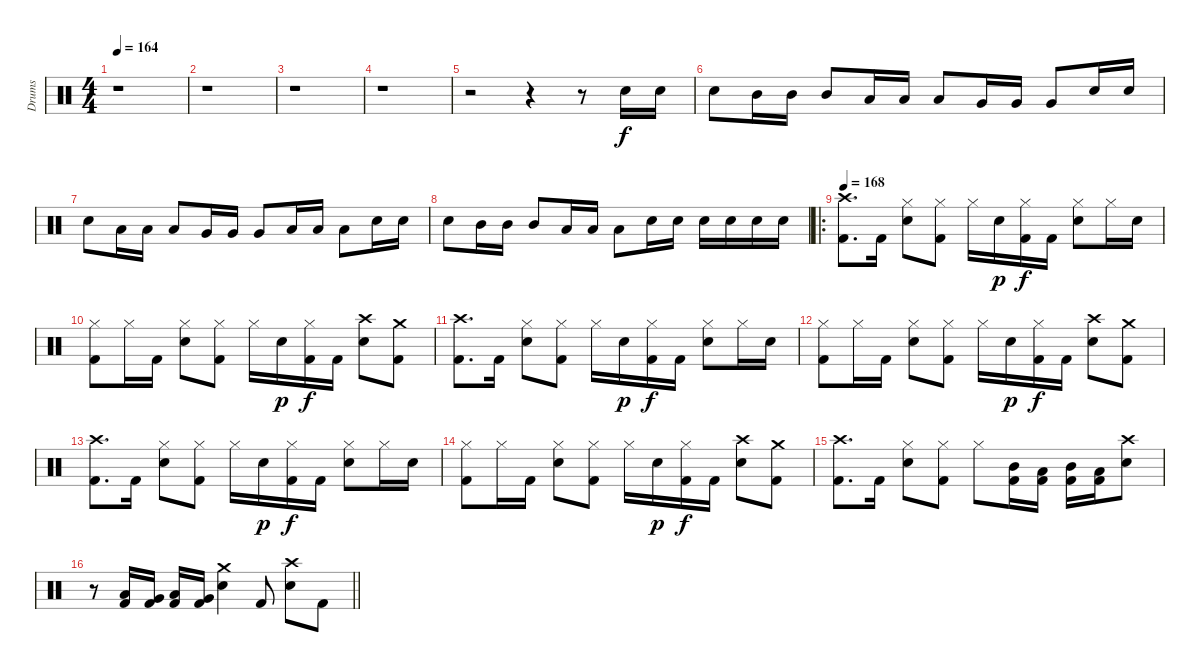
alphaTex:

\track ("Drums" "Drums") {instrument percussion}
\staff {score}
\articulation defaults
\ts (4 4)
\tempo 164
\clef neutral
\ks c
r.1{dy f} |
r.1 |
r.1 |
r.1 |
r.2 r.4 r.8 "Snare (hit) 2".16 "Snare (hit) 2".16 |
"Snare (hit) 2".8 "Mid Tom (hit)".16 "Mid Tom (hit)".16 "Mid Tom (hit)".8 "Low Tom (hit)".16 "Low Tom (hit)".16 "Low Tom (hit)".8 "Very Low Tom (hit)".16 "Very Low Tom (hit)".16 "Very Low Tom (hit)".8 "Snare (hit) 2".16 "Snare (hit) 2".16 |
"Snare (hit) 2".8 "Low Tom (hit)".16 "Low Tom (hit)".16 "Low Tom (hit)".8 "Very Low Tom (hit)".16 "Very Low Tom (hit)".16 "Very Low Tom (hit)".8 "Low Floor Tom (hit)".16 "Low Floor Tom (hit)".16 "Low Floor Tom (hit)".8 "Snare (hit) 2".16 "Snare (hit) 2".16 |
"Snare (hit) 2".8 "Mid Tom (hit)".16 "Mid Tom (hit)".16 "Mid Tom (hit)".8 "Low Tom (hit)".16 "Low Tom (hit)".16 "Low Tom (hit)".8 "Snare (hit) 2".16 "Snare (hit) 2".16 "Snare (hit) 2".16 "Snare (hit) 2".16 "Snare (hit) 2".16 "Snare (hit) 2".16 |
\ro
\tempo 168
("Crash high (hit)" "Kick (hit) 2").8{d} "Kick (hit) 2".16 ("Hi-Hat (closed)" "Snare (hit) 2").8 ("Hi-Hat (closed)" "Kick (hit) 2").8 "Hi-Hat (closed)".16 "Snare (hit) 2".16{dy p} ("Hi-Hat (closed)" "Kick (hit) 2").16{dy f} "Kick (hit) 2".16 ("Hi-Hat (closed)" "Snare (hit) 2").8 "Hi-Hat (closed)".16 "Snare (hit) 2".16 |
("Hi-Hat (closed)" "Kick (hit) 2").8 "Hi-Hat (closed)".16 "Kick (hit) 2".16 ("Hi-Hat (closed)" "Snare (hit) 2").8 ("Hi-Hat (closed)" "Kick (hit) 2").8 "Hi-Hat (closed)".16 "Snare (hit) 2".16{dy p} ("Hi-Hat (closed)" "Kick (hit) 2").16{dy f} "Kick (hit) 2".16 ("Crash high (hit)" "Snare (hit) 2").8 ("Crash medium (hit)" "Kick (hit) 2").8 |
("Crash high (hit)" "Kick (hit) 2").8{d} "Kick (hit) 2".16 ("Hi-Hat (closed)" "Snare (hit) 2").8 ("Hi-Hat (closed)" "Kick (hit) 2").8 "Hi-Hat (closed)".16 "Snare (hit) 2".16{dy p} ("Hi-Hat (closed)" "Kick (hit) 2").16{dy f} "Kick (hit) 2".16 ("Hi-Hat (closed)" "Snare (hit) 2").8 "Hi-Hat (closed)".16 "Snare (hit) 2".16 |
("Hi-Hat (closed)" "Kick (hit) 2").8 "Hi-Hat (closed)".16 "Kick (hit) 2".16 ("Hi-Hat (closed)" "Snare (hit) 2").8 ("Hi-Hat (closed)" "Kick (hit) 2").8 "Hi-Hat (closed)".16 "Snare (hit) 2".16{dy p} ("Hi-Hat (closed)" "Kick (hit) 2").16{dy f} "Kick (hit) 2".16 ("Crash high (hit)" "Snare (hit) 2").8 ("Crash medium (hit)" "Kick (hit) 2").8 |
("Crash high (hit)" "Kick (hit) 2").8{d} "Kick (hit) 2".16 ("Hi-Hat (closed)" "Snare (hit) 2").8 ("Hi-Hat (closed)" "Kick (hit) 2").8 "Hi-Hat (closed)".16 "Snare (hit) 2".16{dy p} ("Hi-Hat (closed)" "Kick (hit) 2").16{dy f} "Kick (hit) 2".16 ("Hi-Hat (closed)" "Snare (hit) 2").8 "Hi-Hat (closed)".16 "Snare (hit) 2".16 |
("Hi-Hat (closed)" "Kick (hit) 2").8 "Hi-Hat (closed)".16 "Kick (hit) 2".16 ("Hi-Hat (closed)" "Snare (hit) 2").8 ("Hi-Hat (closed)" "Kick (hit) 2").8 "Hi-Hat (closed)".16 "Snare (hit) 2".16{dy p} ("Hi-Hat (closed)" "Kick (hit) 2").16{dy f} "Kick (hit) 2".16 ("Crash high (hit)" "Snare (hit) 2").8 ("Crash medium (hit)" "Kick (hit) 2").8 |
("Crash high (hit)" "Kick (hit) 2").8{d} "Kick (hit) 2".16 ("Hi-Hat (closed)" "Snare (hit) 2").8 ("Hi-Hat (closed)" "Kick (hit) 2").8 "Hi-Hat (closed)".8 ("Mid Tom (hit)" "Kick (hit) 2").16 ("Low Tom (hit)" "Kick (hit) 2").16 ("Mid Tom (hit)" "Kick (hit) 2").16 ("Low Tom (hit)" "Kick (hit) 2").16 ("Crash high (hit)" "Snare (hit) 2").8 |
\barLineRight lightlight
r.8 ("Low Tom (hit)" "Kick (hit) 2").16 ("Very Low Tom (hit)" "Kick (hit) 2").16 ("Low Tom (hit)" "Kick (hit) 2").16 ("Very Low Tom (hit)" "Kick (hit) 2").16 ("Crash medium (hit)" "Snare (hit) 2").4 "Kick (hit) 2".8 ("Crash high (hit)" "Snare (hit) 2").8 "Kick (hit) 2".8
